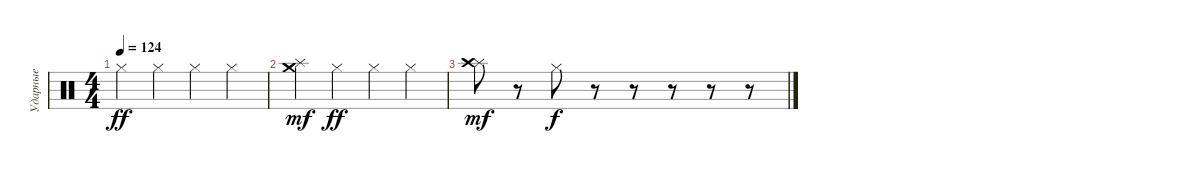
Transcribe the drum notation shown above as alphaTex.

\track ("Ударные" "Ударные") {instrument percussion}
\staff {score}
\articulation defaults
\ts (4 4)
\tempo 124
\clef neutral
\ks c "Hi-Hat (closed)".4{dy ff} "Hi-Hat (closed)".4 "Hi-Hat (closed)".4 "Hi-Hat (closed)".4
|
("Splash (hit)" "Crash medium (hit)").4{dy mf} "Hi-Hat (closed)".4{dy ff} "Hi-Hat (closed)".4 "Hi-Hat (closed)".4 |
("Splash (hit)" "Crash high (hit)").8{dy mf} r.8 "Hi-Hat (closed)".8{dy f} r.8 r.8 r.8 r.8 r.8
